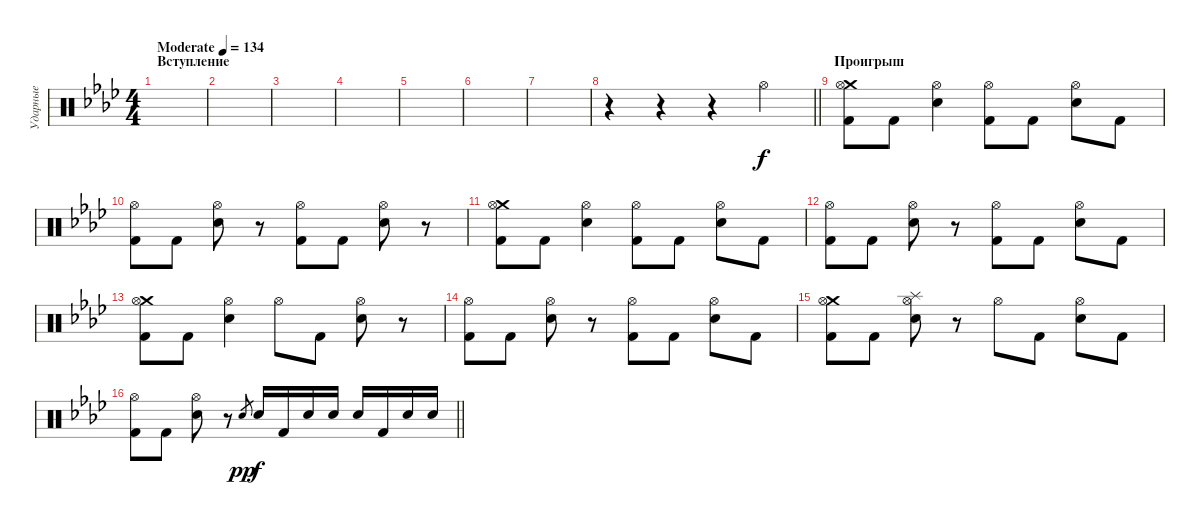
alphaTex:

\track ("Ударные" "Ударные") {instrument percussion}
\staff {score}
\articulation defaults
\ts (4 4)
\section ("" "Вступление")
\tempo (134 "Moderate")
\clef neutral
\ks fminor
|
|
|
|
|
|
|
\barLineRight lightlight
r.4 r.4 r.4 "Hi-Hat (open)".4 |
\section ("" "Проигрыш")
("Crash medium (hit)" "Hi-Hat (open)" "Kick (hit) 2").8 "Kick (hit) 2".8 ("Hi-Hat (open)" "Electric Snare (hit)").4 ("Hi-Hat (open)" "Kick (hit) 2").8 "Kick (hit) 2".8 ("Hi-Hat (open)" "Electric Snare (hit)").8 "Kick (hit) 2".8 |
("Hi-Hat (open)" "Kick (hit) 2").8 "Kick (hit) 2".8 ("Hi-Hat (open)" "Electric Snare (hit)").8 r.8 ("Hi-Hat (open)" "Kick (hit) 2").8 "Kick (hit) 2".8 ("Hi-Hat (open)" "Electric Snare (hit)").8 r.8 |
("Crash medium (hit)" "Hi-Hat (open)" "Kick (hit) 2").8 "Kick (hit) 2".8 ("Hi-Hat (open)" "Electric Snare (hit)").4 ("Hi-Hat (open)" "Kick (hit) 2").8 "Kick (hit) 2".8 ("Hi-Hat (open)" "Electric Snare (hit)").8 "Kick (hit) 2".8 |
("Hi-Hat (open)" "Kick (hit) 2").8 "Kick (hit) 2".8 ("Hi-Hat (open)" "Electric Snare (hit)").8 r.8 ("Hi-Hat (open)" "Kick (hit) 2").8 "Kick (hit) 2".8 ("Hi-Hat (open)" "Electric Snare (hit)").8 "Kick (hit) 2".8 |
("Crash medium (hit)" "Hi-Hat (open)" "Kick (hit) 2").8 "Kick (hit) 2".8 ("Hi-Hat (open)" "Electric Snare (hit)").4 "Hi-Hat (open)".8 "Kick (hit) 2".8 ("Hi-Hat (open)" "Electric Snare (hit)").8 r.8 |
("Hi-Hat (open)" "Kick (hit) 2").8 "Kick (hit) 2".8 ("Hi-Hat (open)" "Electric Snare (hit)").8 r.8 ("Hi-Hat (open)" "Kick (hit) 2").8 "Kick (hit) 2".8 ("Hi-Hat (open)" "Electric Snare (hit)").8 "Kick (hit) 2".8 |
("Crash medium (hit)" "Hi-Hat (open)" "Kick (hit) 2").8 "Kick (hit) 2".8 ("Splash (hit)" "Hi-Hat (open)" "Electric Snare (hit)").8 r.8 "Hi-Hat (open)".8 "Kick (hit) 2".8 ("Hi-Hat (open)" "Electric Snare (hit)").8 "Kick (hit) 2".8 |
\barLineRight lightlight
("Hi-Hat (open)" "Kick (hit) 2").8 "Kick (hit) 2".8 ("Hi-Hat (open)" "Electric Snare (hit)").8 r.8 "Electric Snare (hit)".8{gr dy pp} "Electric Snare (hit)".16{dy f} "Kick (hit) 2".16 "Electric Snare (hit)".16 "Electric Snare (hit)".16 "Electric Snare (hit)".16 "Kick (hit) 2".16 "Electric Snare (hit)".16 "Electric Snare (hit)".16
